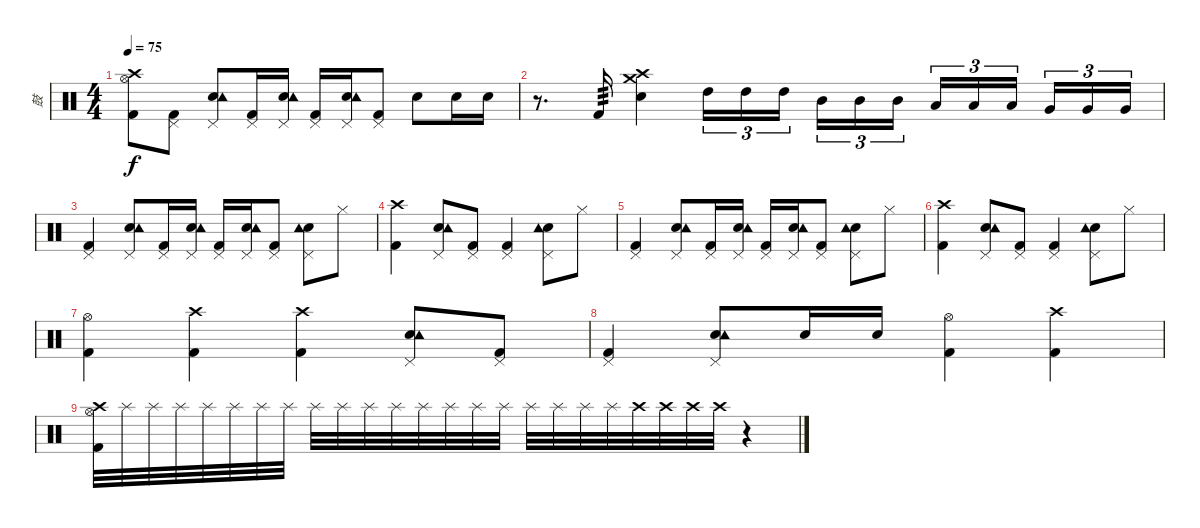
\track ("鼓" "鼓") {instrument percussion}
\staff {score}
\articulation defaults
\ts (4 4)
\tempo 75
\clef neutral
\ks c
("Crash high (hit)" "Hi-Hat (open)" "Kick (hit) 2").8{dy f} ("Kick (hit) 2" "Pedal Hi-Hat (hit)").8 ("Snare (hit) 2" "Pedal Hi-Hat (hit)" "Tambourine (hit)").8 ("Kick (hit) 2" "Pedal Hi-Hat (hit)").16 ("Snare (hit) 2" "Pedal Hi-Hat (hit)" "Tambourine (hit)").16 ("Kick (hit) 2" "Pedal Hi-Hat (hit)").16 ("Snare (hit) 2" "Pedal Hi-Hat (hit)" "Tambourine (hit)").16 ("Kick (hit) 2" "Pedal Hi-Hat (hit)").8 "Snare (hit) 2".8 "Snare (hit) 2".16 "Snare (hit) 2".16 |
r.8{d} "Kick (hit) 2".16{tp 3} ("Crash high (hit)" "Crash medium (hit)" "Electric Snare (hit)").4 "High Tom (hit)".16{tu (3 2)} "High Tom (hit)".16{tu (3 2)} "High Tom (hit)".16{tu (3 2) beam splitsecondary} "Mid Tom (hit)".16{tu (3 2)} "Mid Tom (hit)".16{tu (3 2)} "Mid Tom (hit)".16{tu (3 2)} "Low Tom (hit)".16{tu (3 2)} "Low Tom (hit)".16{tu (3 2)} "Low Tom (hit)".16{tu (3 2) beam splitsecondary} "Very Low Tom (hit)".16{tu (3 2)} "Very Low Tom (hit)".16{tu (3 2)} "Very Low Tom (hit)".16{tu (3 2)} |
("Kick (hit) 2" "Pedal Hi-Hat (hit)").4 ("Snare (hit) 2" "Pedal Hi-Hat (hit)" "Tambourine (hit)").8 ("Kick (hit) 2" "Pedal Hi-Hat (hit)").16 ("Snare (hit) 2" "Pedal Hi-Hat (hit)" "Tambourine (hit)").16 ("Kick (hit) 2" "Pedal Hi-Hat (hit)").16 ("Snare (hit) 2" "Pedal Hi-Hat (hit)" "Tambourine (hit)").16 ("Kick (hit) 2" "Pedal Hi-Hat (hit)").8 ("Snare (hit) 2" "Pedal Hi-Hat (hit)" "Tambourine (hit)").8 "Hi-Hat (closed)".8 |
("Kick (hit) 2" "Crash high (hit)").4 ("Snare (hit) 2" "Pedal Hi-Hat (hit)" "Tambourine (hit)").8 ("Kick (hit) 2" "Pedal Hi-Hat (hit)").8 ("Kick (hit) 2" "Pedal Hi-Hat (hit)").4 ("Snare (hit) 2" "Pedal Hi-Hat (hit)" "Tambourine (hit)").8 "Hi-Hat (closed)".8 |
("Kick (hit) 2" "Pedal Hi-Hat (hit)").4 ("Snare (hit) 2" "Pedal Hi-Hat (hit)" "Tambourine (hit)").8 ("Kick (hit) 2" "Pedal Hi-Hat (hit)").16 ("Snare (hit) 2" "Pedal Hi-Hat (hit)" "Tambourine (hit)").16 ("Kick (hit) 2" "Pedal Hi-Hat (hit)").16 ("Snare (hit) 2" "Pedal Hi-Hat (hit)" "Tambourine (hit)").16 ("Kick (hit) 2" "Pedal Hi-Hat (hit)").8 ("Snare (hit) 2" "Pedal Hi-Hat (hit)" "Tambourine (hit)").8 "Hi-Hat (closed)".8 |
("Kick (hit) 2" "Crash high (hit)").4 ("Snare (hit) 2" "Pedal Hi-Hat (hit)" "Tambourine (hit)").8 ("Kick (hit) 2" "Pedal Hi-Hat (hit)").8 ("Kick (hit) 2" "Pedal Hi-Hat (hit)").4 ("Snare (hit) 2" "Pedal Hi-Hat (hit)" "Tambourine (hit)").8 "Hi-Hat (closed)".8 |
("Hi-Hat (open)" "Kick (hit) 2").4 ("Crash high (hit)" "Kick (hit) 2").4 ("Crash high (hit)" "Kick (hit) 2").4 ("Snare (hit) 2" "Pedal Hi-Hat (hit)" "Tambourine (hit)").8 ("Kick (hit) 2" "Pedal Hi-Hat (hit)").8 |
("Kick (hit) 2" "Pedal Hi-Hat (hit)").4 ("Snare (hit) 2" "Pedal Hi-Hat (hit)" "Tambourine (hit)").8 "Snare (hit) 2".16 "Snare (hit) 2".16 ("Hi-Hat (open)" "Kick (hit) 2").4 ("Crash high (hit)" "Kick (hit) 2").4 |
("Crash high (hit)" "Kick (hit) 2" "Hi-Hat (open)").32 "Splash (hit)".32 "Splash (hit)".32 "Splash (hit)".32 "Splash (hit)".32 "Splash (hit)".32 "Splash (hit)".32 "Splash (hit)".32 "Splash (hit)".32 "Splash (hit)".32 "Splash (hit)".32 "Splash (hit)".32 "Splash (hit)".32 "Splash (hit)".32 "Splash (hit)".32 "Splash (hit)".32 "Splash (hit)".32 "Splash (hit)".32 "Splash (hit)".32 "Splash (hit)".32 "Crash high (hit)".32 "Crash high (hit)".32 "Crash high (hit)".32 "Crash high (hit)".32 r.4
